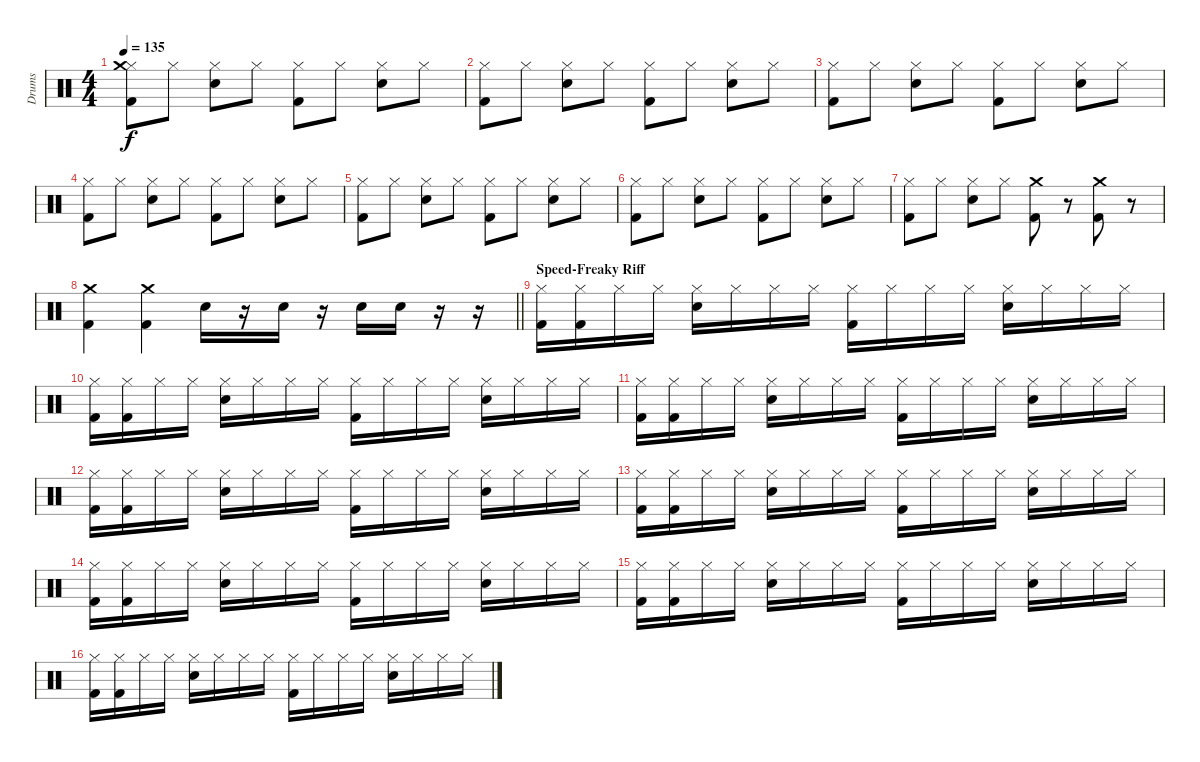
\track ("Drums" "Drums") {instrument percussion}
\staff {score}
\articulation defaults
\ts (4 4)
\tempo 135
\clef neutral
\ks c
("Hi-Hat (closed)" "Kick (hit) 2" "Crash medium (hit)").8{dy f} "Hi-Hat (closed)".8 ("Hi-Hat (closed)" "Snare (hit) 2").8 "Hi-Hat (closed)".8 ("Hi-Hat (closed)" "Kick (hit) 2").8 "Hi-Hat (closed)".8 ("Hi-Hat (closed)" "Snare (hit) 2").8 "Hi-Hat (closed)".8 |
("Hi-Hat (closed)" "Kick (hit) 2").8 "Hi-Hat (closed)".8 ("Hi-Hat (closed)" "Snare (hit) 2").8 "Hi-Hat (closed)".8 ("Hi-Hat (closed)" "Kick (hit) 2").8 "Hi-Hat (closed)".8 ("Hi-Hat (closed)" "Snare (hit) 2").8 "Hi-Hat (closed)".8 |
("Hi-Hat (closed)" "Kick (hit) 2").8 "Hi-Hat (closed)".8 ("Hi-Hat (closed)" "Snare (hit) 2").8 "Hi-Hat (closed)".8 ("Hi-Hat (closed)" "Kick (hit) 2").8 "Hi-Hat (closed)".8 ("Hi-Hat (closed)" "Snare (hit) 2").8 "Hi-Hat (closed)".8 |
("Hi-Hat (closed)" "Kick (hit) 2").8 "Hi-Hat (closed)".8 ("Hi-Hat (closed)" "Snare (hit) 2").8 "Hi-Hat (closed)".8 ("Hi-Hat (closed)" "Kick (hit) 2").8 "Hi-Hat (closed)".8 ("Hi-Hat (closed)" "Snare (hit) 2").8 "Hi-Hat (closed)".8 |
("Hi-Hat (closed)" "Kick (hit) 2").8 "Hi-Hat (closed)".8 ("Hi-Hat (closed)" "Snare (hit) 2").8 "Hi-Hat (closed)".8 ("Hi-Hat (closed)" "Kick (hit) 2").8 "Hi-Hat (closed)".8 ("Hi-Hat (closed)" "Snare (hit) 2").8 "Hi-Hat (closed)".8 |
("Hi-Hat (closed)" "Kick (hit) 2").8 "Hi-Hat (closed)".8 ("Hi-Hat (closed)" "Snare (hit) 2").8 "Hi-Hat (closed)".8 ("Hi-Hat (closed)" "Kick (hit) 2").8 "Hi-Hat (closed)".8 ("Hi-Hat (closed)" "Snare (hit) 2").8 "Hi-Hat (closed)".8 |
("Hi-Hat (closed)" "Kick (hit) 2").8 "Hi-Hat (closed)".8 ("Hi-Hat (closed)" "Snare (hit) 2").8 "Hi-Hat (closed)".8 ("Crash medium (hit)" "Kick (hit) 2").8 r.8 ("Crash medium (hit)" "Kick (hit) 2").8 r.8 |
\barLineRight lightlight
("Crash medium (hit)" "Kick (hit) 2").4 ("Crash medium (hit)" "Kick (hit) 2").4 "Snare (hit) 2".16 r.16 "Snare (hit) 2".16 r.16 "Snare (hit) 2".16 "Snare (hit) 2".16 r.16 r.16 |
\section ("" "Speed-Freaky Riff")
("Hi-Hat (closed)" "Kick (hit) 2").16 ("Hi-Hat (closed)" "Kick (hit) 2").16 "Hi-Hat (closed)".16 "Hi-Hat (closed)".16 ("Hi-Hat (closed)" "Snare (hit) 2").16 "Hi-Hat (closed)".16 "Hi-Hat (closed)".16 "Hi-Hat (closed)".16 ("Hi-Hat (closed)" "Kick (hit) 2").16 "Hi-Hat (closed)".16 "Hi-Hat (closed)".16 "Hi-Hat (closed)".16 ("Hi-Hat (closed)" "Snare (hit) 2").16 "Hi-Hat (closed)".16 "Hi-Hat (closed)".16 "Hi-Hat (closed)".16 |
("Hi-Hat (closed)" "Kick (hit) 2").16 ("Hi-Hat (closed)" "Kick (hit) 2").16 "Hi-Hat (closed)".16 "Hi-Hat (closed)".16 ("Hi-Hat (closed)" "Snare (hit) 2").16 "Hi-Hat (closed)".16 "Hi-Hat (closed)".16 "Hi-Hat (closed)".16 ("Hi-Hat (closed)" "Kick (hit) 2").16 "Hi-Hat (closed)".16 "Hi-Hat (closed)".16 "Hi-Hat (closed)".16 ("Hi-Hat (closed)" "Snare (hit) 2").16 "Hi-Hat (closed)".16 "Hi-Hat (closed)".16 "Hi-Hat (closed)".16 |
("Hi-Hat (closed)" "Kick (hit) 2").16 ("Hi-Hat (closed)" "Kick (hit) 2").16 "Hi-Hat (closed)".16 "Hi-Hat (closed)".16 ("Hi-Hat (closed)" "Snare (hit) 2").16 "Hi-Hat (closed)".16 "Hi-Hat (closed)".16 "Hi-Hat (closed)".16 ("Hi-Hat (closed)" "Kick (hit) 2").16 "Hi-Hat (closed)".16 "Hi-Hat (closed)".16 "Hi-Hat (closed)".16 ("Hi-Hat (closed)" "Snare (hit) 2").16 "Hi-Hat (closed)".16 "Hi-Hat (closed)".16 "Hi-Hat (closed)".16 |
("Hi-Hat (closed)" "Kick (hit) 2").16 ("Hi-Hat (closed)" "Kick (hit) 2").16 "Hi-Hat (closed)".16 "Hi-Hat (closed)".16 ("Hi-Hat (closed)" "Snare (hit) 2").16 "Hi-Hat (closed)".16 "Hi-Hat (closed)".16 "Hi-Hat (closed)".16 ("Hi-Hat (closed)" "Kick (hit) 2").16 "Hi-Hat (closed)".16 "Hi-Hat (closed)".16 "Hi-Hat (closed)".16 ("Hi-Hat (closed)" "Snare (hit) 2").16 "Hi-Hat (closed)".16 "Hi-Hat (closed)".16 "Hi-Hat (closed)".16 |
("Hi-Hat (closed)" "Kick (hit) 2").16 ("Hi-Hat (closed)" "Kick (hit) 2").16 "Hi-Hat (closed)".16 "Hi-Hat (closed)".16 ("Hi-Hat (closed)" "Snare (hit) 2").16 "Hi-Hat (closed)".16 "Hi-Hat (closed)".16 "Hi-Hat (closed)".16 ("Hi-Hat (closed)" "Kick (hit) 2").16 "Hi-Hat (closed)".16 "Hi-Hat (closed)".16 "Hi-Hat (closed)".16 ("Hi-Hat (closed)" "Snare (hit) 2").16 "Hi-Hat (closed)".16 "Hi-Hat (closed)".16 "Hi-Hat (closed)".16 |
("Hi-Hat (closed)" "Kick (hit) 2").16 ("Hi-Hat (closed)" "Kick (hit) 2").16 "Hi-Hat (closed)".16 "Hi-Hat (closed)".16 ("Hi-Hat (closed)" "Snare (hit) 2").16 "Hi-Hat (closed)".16 "Hi-Hat (closed)".16 "Hi-Hat (closed)".16 ("Hi-Hat (closed)" "Kick (hit) 2").16 "Hi-Hat (closed)".16 "Hi-Hat (closed)".16 "Hi-Hat (closed)".16 ("Hi-Hat (closed)" "Snare (hit) 2").16 "Hi-Hat (closed)".16 "Hi-Hat (closed)".16 "Hi-Hat (closed)".16 |
("Hi-Hat (closed)" "Kick (hit) 2").16 ("Hi-Hat (closed)" "Kick (hit) 2").16 "Hi-Hat (closed)".16 "Hi-Hat (closed)".16 ("Hi-Hat (closed)" "Snare (hit) 2").16 "Hi-Hat (closed)".16 "Hi-Hat (closed)".16 "Hi-Hat (closed)".16 ("Hi-Hat (closed)" "Kick (hit) 2").16 "Hi-Hat (closed)".16 "Hi-Hat (closed)".16 "Hi-Hat (closed)".16 ("Hi-Hat (closed)" "Snare (hit) 2").16 "Hi-Hat (closed)".16 "Hi-Hat (closed)".16 "Hi-Hat (closed)".16 |
("Hi-Hat (closed)" "Kick (hit) 2").16 ("Hi-Hat (closed)" "Kick (hit) 2").16 "Hi-Hat (closed)".16 "Hi-Hat (closed)".16 ("Hi-Hat (closed)" "Snare (hit) 2").16 "Hi-Hat (closed)".16 "Hi-Hat (closed)".16 "Hi-Hat (closed)".16 ("Hi-Hat (closed)" "Kick (hit) 2").16 "Hi-Hat (closed)".16 "Hi-Hat (closed)".16 "Hi-Hat (closed)".16 ("Hi-Hat (closed)" "Snare (hit) 2").16 "Hi-Hat (closed)".16 "Hi-Hat (closed)".16 "Hi-Hat (closed)".16
